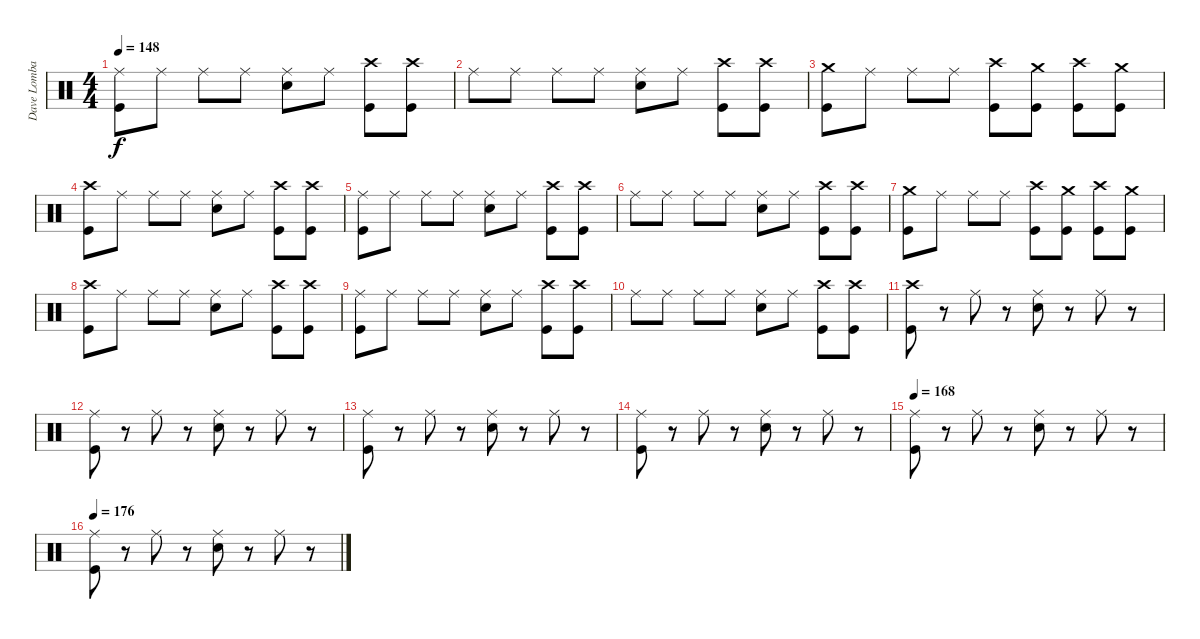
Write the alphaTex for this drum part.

\track ("Dave Lombardo (Drum)" "Dave Lomba") {instrument percussion}
\staff {score}
\articulation defaults
\ts (4 4)
\tempo 148
\clef neutral
\ks c
("Kick (hit)" "Ride (middle)").8{dy f} "Ride (middle)".8 "Ride (middle)".8 "Ride (middle)".8 ("Snare (hit) 2" "Ride (middle)").8 "Ride (middle)".8 ("Kick (hit)" "Crash high (hit)").8 ("Crash high (hit)" "Kick (hit)").8 |
"Ride (middle)".8 "Ride (middle)".8 "Ride (middle)".8 "Ride (middle)".8 ("Snare (hit) 2" "Ride (middle)").8 "Ride (middle)".8 ("Kick (hit)" "Crash high (hit)").8 ("Crash high (hit)" "Kick (hit)").8 |
("Crash medium (hit)" "Kick (hit)").8 "Ride (middle)".8 "Ride (middle)".8 "Ride (middle)".8 ("Kick (hit)" "Crash high (hit)").8 ("Kick (hit)" "Crash medium (hit)").8 ("Kick (hit)" "Crash high (hit)").8 ("Kick (hit)" "Crash medium (hit)").8 |
("Kick (hit)" "Crash high (hit)").8 "Ride (middle)".8 "Ride (middle)".8 "Ride (middle)".8 ("Snare (hit) 2" "Ride (middle)").8 "Ride (middle)".8 ("Kick (hit)" "Crash high (hit)").8 ("Crash high (hit)" "Kick (hit)").8 |
("Kick (hit)" "Ride (middle)").8 "Ride (middle)".8 "Ride (middle)".8 "Ride (middle)".8 ("Snare (hit) 2" "Ride (middle)").8 "Ride (middle)".8 ("Kick (hit)" "Crash high (hit)").8 ("Crash high (hit)" "Kick (hit)").8 |
"Ride (middle)".8 "Ride (middle)".8 "Ride (middle)".8 "Ride (middle)".8 ("Snare (hit) 2" "Ride (middle)").8 "Ride (middle)".8 ("Kick (hit)" "Crash high (hit)").8 ("Crash high (hit)" "Kick (hit)").8 |
("Crash medium (hit)" "Kick (hit)").8 "Ride (middle)".8 "Ride (middle)".8 "Ride (middle)".8 ("Kick (hit)" "Crash high (hit)").8 ("Kick (hit)" "Crash medium (hit)").8 ("Kick (hit)" "Crash high (hit)").8 ("Kick (hit)" "Crash medium (hit)").8 |
("Kick (hit)" "Crash high (hit)").8 "Ride (middle)".8 "Ride (middle)".8 "Ride (middle)".8 ("Snare (hit) 2" "Ride (middle)").8 "Ride (middle)".8 ("Kick (hit)" "Crash high (hit)").8 ("Crash high (hit)" "Kick (hit)").8 |
("Kick (hit)" "Ride (middle)").8 "Ride (middle)".8 "Ride (middle)".8 "Ride (middle)".8 ("Snare (hit) 2" "Ride (middle)").8 "Ride (middle)".8 ("Kick (hit)" "Crash high (hit)").8 ("Crash high (hit)" "Kick (hit)").8 |
"Ride (middle)".8 "Ride (middle)".8 "Ride (middle)".8 "Ride (middle)".8 ("Snare (hit) 2" "Ride (middle)").8 "Ride (middle)".8 ("Kick (hit)" "Crash high (hit)").8 ("Crash high (hit)" "Kick (hit)").8 |
("Crash high (hit)" "Kick (hit)").8 r.8 "Ride (middle)".8 r.8 ("Snare (hit) 2" "Ride (middle)").8 r.8 "Ride (middle)".8 r.8 |
("Kick (hit)" "Ride (middle)").8 r.8 "Ride (middle)".8 r.8 ("Snare (hit) 2" "Ride (middle)").8 r.8 "Ride (middle)".8 r.8 |
("Kick (hit)" "Ride (middle)").8 r.8 "Ride (middle)".8 r.8 ("Snare (hit) 2" "Ride (middle)").8 r.8 "Ride (middle)".8 r.8 |
("Kick (hit)" "Ride (middle)").8 r.8 "Ride (middle)".8 r.8 ("Snare (hit) 2" "Ride (middle)").8 r.8 "Ride (middle)".8 r.8 |
\tempo 168
("Kick (hit)" "Ride (middle)").8 r.8 "Ride (middle)".8 r.8 ("Snare (hit) 2" "Ride (middle)").8 r.8 "Ride (middle)".8 r.8 |
\tempo 176
("Kick (hit)" "Ride (middle)").8 r.8 "Ride (middle)".8 r.8 ("Snare (hit) 2" "Ride (middle)").8 r.8 "Ride (middle)".8 r.8
